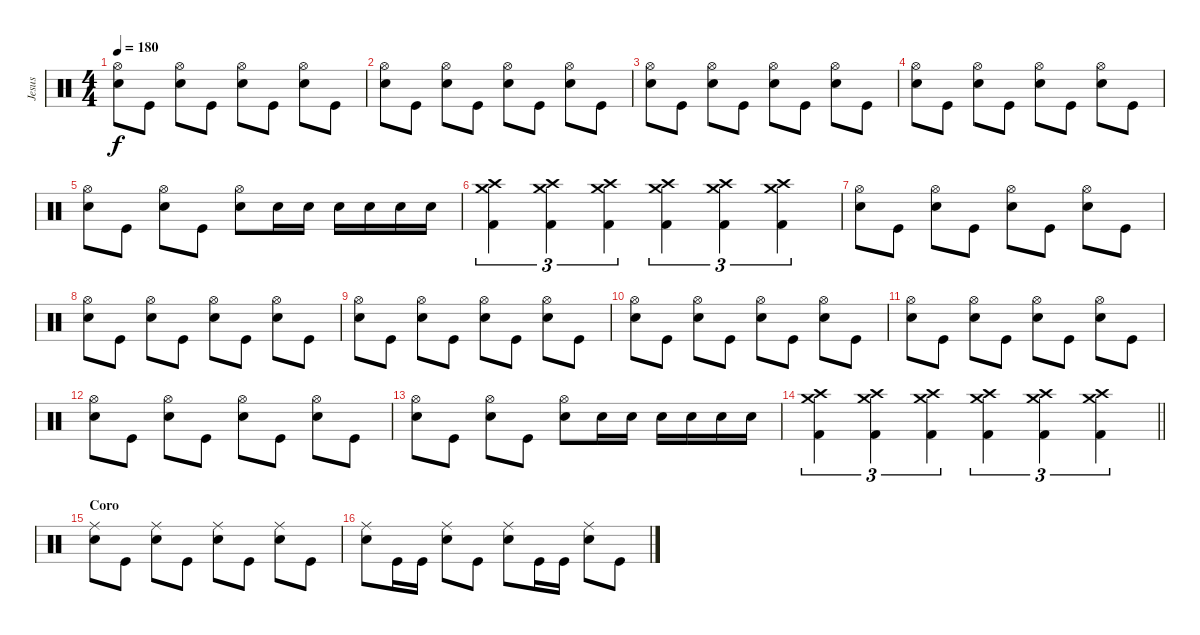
\track ("Jesus" "Jesus") {instrument percussion}
\staff {score}
\articulation defaults
\ts (4 4)
\tempo 180
\clef neutral
\ks c
("Hi-Hat (open)" "Snare (hit) 2").8{dy f} "Kick (hit)".8 ("Hi-Hat (open)" "Snare (hit) 2").8 "Kick (hit)".8 ("Hi-Hat (open)" "Snare (hit) 2").8 "Kick (hit)".8 ("Hi-Hat (open)" "Snare (hit) 2").8 "Kick (hit)".8 |
("Hi-Hat (open)" "Snare (hit) 2").8 "Kick (hit)".8 ("Hi-Hat (open)" "Snare (hit) 2").8 "Kick (hit)".8 ("Hi-Hat (open)" "Snare (hit) 2").8 "Kick (hit)".8 ("Hi-Hat (open)" "Snare (hit) 2").8 "Kick (hit)".8 |
("Hi-Hat (open)" "Snare (hit) 2").8 "Kick (hit)".8 ("Hi-Hat (open)" "Snare (hit) 2").8 "Kick (hit)".8 ("Hi-Hat (open)" "Snare (hit) 2").8 "Kick (hit)".8 ("Hi-Hat (open)" "Snare (hit) 2").8 "Kick (hit)".8 |
("Hi-Hat (open)" "Snare (hit) 2").8 "Kick (hit)".8 ("Hi-Hat (open)" "Snare (hit) 2").8 "Kick (hit)".8 ("Hi-Hat (open)" "Snare (hit) 2").8 "Kick (hit)".8 ("Hi-Hat (open)" "Snare (hit) 2").8 "Kick (hit)".8 |
("Hi-Hat (open)" "Snare (hit) 2").8 "Kick (hit)".8 ("Hi-Hat (open)" "Snare (hit) 2").8 "Kick (hit)".8 ("Hi-Hat (open)" "Snare (hit) 2").8 "Snare (hit) 2".16 "Snare (hit) 2".16 "Snare (hit) 2".16 "Snare (hit) 2".16 "Snare (hit) 2".16 "Snare (hit) 2".16 |
("Crash high (hit)" "Crash medium (hit)" "Kick (hit) 2").4{tu (3 2)} ("Crash high (hit)" "Crash medium (hit)" "Kick (hit) 2").4{tu (3 2)} ("Crash high (hit)" "Crash medium (hit)" "Kick (hit) 2").4{tu (3 2)} ("Crash high (hit)" "Crash medium (hit)" "Kick (hit) 2").4{tu (3 2)} ("Crash high (hit)" "Crash medium (hit)" "Kick (hit) 2").4{tu (3 2)} ("Crash high (hit)" "Crash medium (hit)" "Kick (hit) 2").4{tu (3 2)} |
("Hi-Hat (open)" "Snare (hit) 2").8 "Kick (hit)".8 ("Hi-Hat (open)" "Snare (hit) 2").8 "Kick (hit)".8 ("Hi-Hat (open)" "Snare (hit) 2").8 "Kick (hit)".8 ("Hi-Hat (open)" "Snare (hit) 2").8 "Kick (hit)".8 |
("Hi-Hat (open)" "Snare (hit) 2").8 "Kick (hit)".8 ("Hi-Hat (open)" "Snare (hit) 2").8 "Kick (hit)".8 ("Hi-Hat (open)" "Snare (hit) 2").8 "Kick (hit)".8 ("Hi-Hat (open)" "Snare (hit) 2").8 "Kick (hit)".8 |
("Hi-Hat (open)" "Snare (hit) 2").8 "Kick (hit)".8 ("Hi-Hat (open)" "Snare (hit) 2").8 "Kick (hit)".8 ("Hi-Hat (open)" "Snare (hit) 2").8 "Kick (hit)".8 ("Hi-Hat (open)" "Snare (hit) 2").8 "Kick (hit)".8 |
("Hi-Hat (open)" "Snare (hit) 2").8 "Kick (hit)".8 ("Hi-Hat (open)" "Snare (hit) 2").8 "Kick (hit)".8 ("Hi-Hat (open)" "Snare (hit) 2").8 "Kick (hit)".8 ("Hi-Hat (open)" "Snare (hit) 2").8 "Kick (hit)".8 |
("Hi-Hat (open)" "Snare (hit) 2").8 "Kick (hit)".8 ("Hi-Hat (open)" "Snare (hit) 2").8 "Kick (hit)".8 ("Hi-Hat (open)" "Snare (hit) 2").8 "Kick (hit)".8 ("Hi-Hat (open)" "Snare (hit) 2").8 "Kick (hit)".8 |
("Hi-Hat (open)" "Snare (hit) 2").8 "Kick (hit)".8 ("Hi-Hat (open)" "Snare (hit) 2").8 "Kick (hit)".8 ("Hi-Hat (open)" "Snare (hit) 2").8 "Kick (hit)".8 ("Hi-Hat (open)" "Snare (hit) 2").8 "Kick (hit)".8 |
("Hi-Hat (open)" "Snare (hit) 2").8 "Kick (hit)".8 ("Hi-Hat (open)" "Snare (hit) 2").8 "Kick (hit)".8 ("Hi-Hat (open)" "Snare (hit) 2").8 "Snare (hit) 2".16 "Snare (hit) 2".16 "Snare (hit) 2".16 "Snare (hit) 2".16 "Snare (hit) 2".16 "Snare (hit) 2".16 |
\barLineRight lightlight
("Crash high (hit)" "Crash medium (hit)" "Kick (hit) 2").4{tu (3 2)} ("Crash high (hit)" "Crash medium (hit)" "Kick (hit) 2").4{tu (3 2)} ("Crash high (hit)" "Crash medium (hit)" "Kick (hit) 2").4{tu (3 2)} ("Crash high (hit)" "Crash medium (hit)" "Kick (hit) 2").4{tu (3 2)} ("Crash high (hit)" "Crash medium (hit)" "Kick (hit) 2").4{tu (3 2)} ("Crash high (hit)" "Crash medium (hit)" "Kick (hit) 2").4{tu (3 2)} |
\section ("" "Coro")
("Ride (middle)" "Snare (hit) 2").8 "Kick (hit)".8 ("Ride (middle)" "Snare (hit) 2").8 "Kick (hit)".8 ("Ride (middle)" "Snare (hit) 2").8 "Kick (hit)".8 ("Ride (middle)" "Snare (hit) 2").8 "Kick (hit)".8 |
("Ride (middle)" "Snare (hit) 2").8 "Kick (hit)".16 "Kick (hit)".16 ("Ride (middle)" "Snare (hit) 2").8 "Kick (hit)".8 ("Ride (middle)" "Snare (hit) 2").8 "Kick (hit)".16 "Kick (hit)".16 ("Ride (middle)" "Snare (hit) 2").8 "Kick (hit)".8
